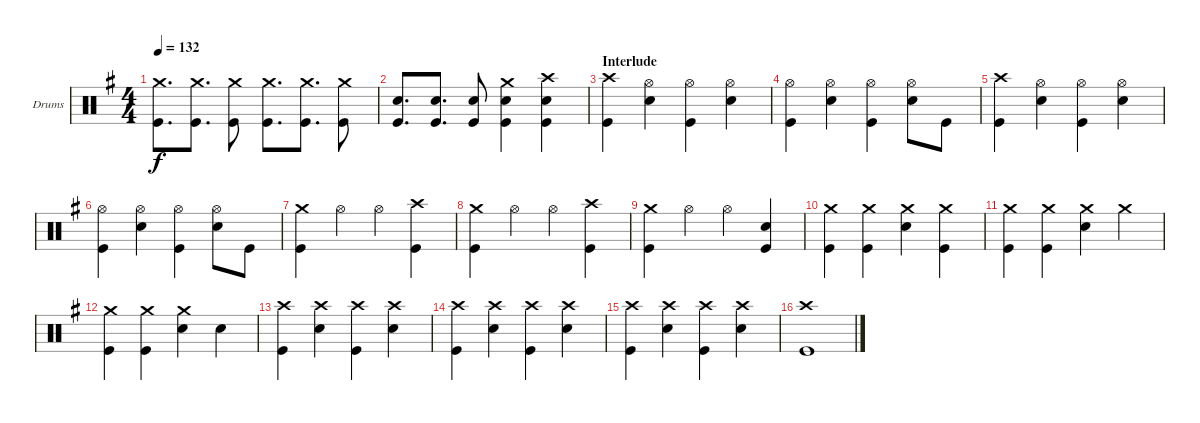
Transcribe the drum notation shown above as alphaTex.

\bracketExtendMode groupsimilarinstruments
\firstSystemTrackNameOrientation horizontal
\otherSystemsTrackNameOrientation horizontal
\track ("Drumkit" "Drums") {instrument percussion}
\staff {score}
\articulation defaults
\ts (4 4)
\tempo 132
\clef neutral
\ks g
("Crash medium (hit)" "Kick (hit)").8{d dy f} ("Crash medium (hit)" "Kick (hit)").8{d} ("Crash medium (hit)" "Kick (hit)").8 ("Crash medium (hit)" "Kick (hit)").8{d} ("Crash medium (hit)" "Kick (hit)").8{d} ("Crash medium (hit)" "Kick (hit)").8 |
("Snare (hit) 2" "Kick (hit)").8{d} ("Snare (hit) 2" "Kick (hit)").8{d} ("Snare (hit) 2" "Kick (hit)").8 ("Crash medium (hit)" "Snare (hit) 2" "Kick (hit)").4 ("Crash high (hit)" "Snare (hit) 2" "Kick (hit)").4 |
\section ("" "Interlude")
("Crash high (hit)" "Kick (hit)").4 ("Hi-Hat (open)" "Snare (hit) 2").4 ("Hi-Hat (open)" "Kick (hit)").4 ("Hi-Hat (open)" "Snare (hit) 2").4 |
("Hi-Hat (open)" "Kick (hit)").4 ("Hi-Hat (open)" "Snare (hit) 2").4 ("Hi-Hat (open)" "Kick (hit)").4 ("Hi-Hat (open)" "Snare (hit) 2").8 "Kick (hit)".8 |
("Crash high (hit)" "Kick (hit)").4 ("Hi-Hat (open)" "Snare (hit) 2").4 ("Hi-Hat (open)" "Kick (hit)").4 ("Hi-Hat (open)" "Snare (hit) 2").4 |
("Hi-Hat (open)" "Kick (hit)").4 ("Hi-Hat (open)" "Snare (hit) 2").4 ("Hi-Hat (open)" "Kick (hit)").4 ("Hi-Hat (open)" "Snare (hit) 2").8 "Kick (hit)".8 |
("Crash medium (hit)" "Kick (hit)").4 "Hi-Hat (open)".4 "Hi-Hat (open)".4 ("Crash high (hit)" "Kick (hit)").4 |
("Crash medium (hit)" "Kick (hit)").4 "Hi-Hat (open)".4 "Hi-Hat (open)".4 ("Crash high (hit)" "Kick (hit)").4 |
("Crash medium (hit)" "Kick (hit)").4 "Hi-Hat (open)".4 "Hi-Hat (open)".4 ("Snare (hit) 2" "Kick (hit)").4 |
("Crash medium (hit)" "Kick (hit)").4 ("Crash medium (hit)" "Kick (hit)").4 ("Crash medium (hit)" "Snare (hit) 2").4 ("Crash medium (hit)" "Kick (hit)").4 |
("Crash medium (hit)" "Kick (hit)").4 ("Crash medium (hit)" "Kick (hit)").4 ("Crash medium (hit)" "Snare (hit) 2").4 "Crash medium (hit)".4 |
("Crash medium (hit)" "Kick (hit)").4 ("Crash medium (hit)" "Kick (hit)").4 ("Crash medium (hit)" "Snare (hit) 2").4 "Snare (hit) 2".4 |
("Crash high (hit)" "Kick (hit)").4 ("Crash high (hit)" "Snare (hit) 2").4 ("Crash high (hit)" "Kick (hit)").4 ("Crash high (hit)" "Snare (hit) 2").4 |
("Crash high (hit)" "Kick (hit)").4 ("Crash high (hit)" "Snare (hit) 2").4 ("Crash high (hit)" "Kick (hit)").4 ("Crash high (hit)" "Snare (hit) 2").4 |
("Crash high (hit)" "Kick (hit)").4 ("Crash high (hit)" "Snare (hit) 2").4 ("Crash high (hit)" "Kick (hit)").4 ("Crash high (hit)" "Snare (hit) 2").4 |
("Crash high (hit)" "Kick (hit)").1
